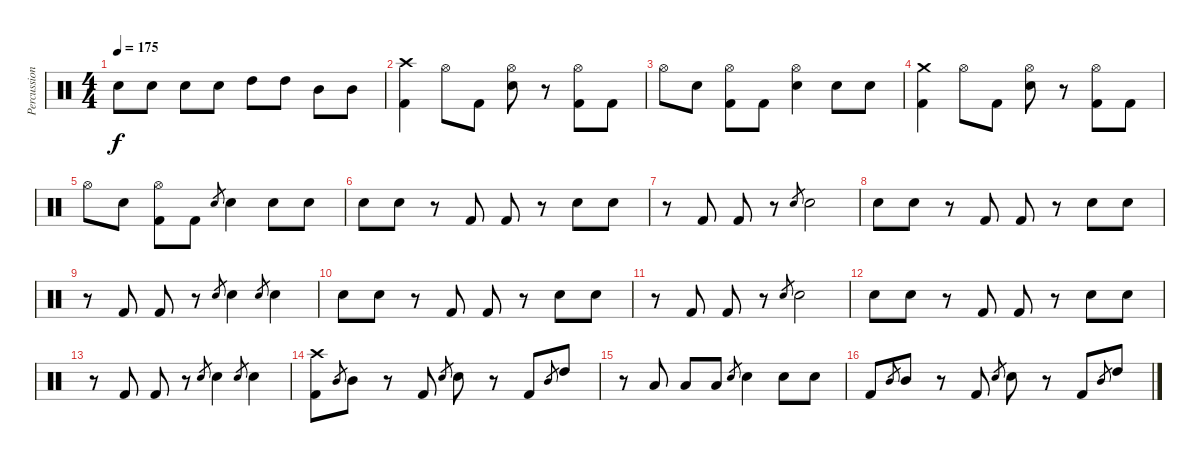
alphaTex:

\track ("Percussion" "Percussion") {instrument percussion}
\staff {score}
\articulation defaults
\ts (4 4)
\tempo 175
\clef neutral
\ks c "Electric Snare (hit)".8{dy f} "Electric Snare (hit)".8 "Electric Snare (hit)".8 "Electric Snare (hit)".8 "High Tom (hit)".8 "High Tom (hit)".8 "Mid Tom (hit)".8 "Mid Tom (hit)".8
|
("Crash high (hit)" "Kick (hit) 2").4 "Hi-Hat (open)".8 "Kick (hit) 2".8 ("Hi-Hat (open)" "Electric Snare (hit)").8 r.8 ("Hi-Hat (open)" "Kick (hit) 2").8 "Kick (hit) 2".8 |
"Hi-Hat (open)".8 "Electric Snare (hit)".8 ("Hi-Hat (open)" "Kick (hit) 2").8 "Kick (hit) 2".8 ("Hi-Hat (open)" "Electric Snare (hit)").4 "Electric Snare (hit)".8 "Electric Snare (hit)".8 |
("Crash medium (hit)" "Kick (hit) 2").4 "Hi-Hat (open)".8 "Kick (hit) 2".8 ("Hi-Hat (open)" "Electric Snare (hit)").8 r.8 ("Hi-Hat (open)" "Kick (hit) 2").8 "Kick (hit) 2".8 |
"Hi-Hat (open)".8 "Electric Snare (hit)".8 ("Hi-Hat (open)" "Kick (hit) 2").8 "Kick (hit) 2".8 "Electric Snare (hit)".8{gr} "Electric Snare (hit)".4 "Electric Snare (hit)".8 "Electric Snare (hit)".8 |
"Electric Snare (hit)".8 "Electric Snare (hit)".8 r.8 "Kick (hit) 2".8 "Kick (hit) 2".8 r.8 "Electric Snare (hit)".8 "Electric Snare (hit)".8 |
r.8 "Kick (hit) 2".8 "Kick (hit) 2".8 r.8 "Electric Snare (hit)".8{gr} "Electric Snare (hit)".2 |
"Electric Snare (hit)".8 "Electric Snare (hit)".8 r.8 "Kick (hit) 2".8 "Kick (hit) 2".8 r.8 "Electric Snare (hit)".8 "Electric Snare (hit)".8 |
r.8 "Kick (hit) 2".8 "Kick (hit) 2".8 r.8 "Electric Snare (hit)".8{gr} "Electric Snare (hit)".4 "Electric Snare (hit)".8{gr} "Electric Snare (hit)".4 |
"Electric Snare (hit)".8 "Electric Snare (hit)".8 r.8 "Kick (hit) 2".8 "Kick (hit) 2".8 r.8 "Electric Snare (hit)".8 "Electric Snare (hit)".8 |
r.8 "Kick (hit) 2".8 "Kick (hit) 2".8 r.8 "Electric Snare (hit)".8{gr} "Electric Snare (hit)".2 |
"Electric Snare (hit)".8 "Electric Snare (hit)".8 r.8 "Kick (hit) 2".8 "Kick (hit) 2".8 r.8 "Electric Snare (hit)".8 "Electric Snare (hit)".8 |
r.8 "Kick (hit) 2".8 "Kick (hit) 2".8 r.8 "Electric Snare (hit)".8{gr} "Electric Snare (hit)".4 "Electric Snare (hit)".8{gr} "Electric Snare (hit)".4 |
("Crash high (hit)" "Kick (hit) 2").8 "Mid Tom (hit)".8{gr} "Mid Tom (hit)".8 r.8 "Kick (hit) 2".8 "Electric Snare (hit)".8{gr} "Electric Snare (hit)".8 r.8 "Kick (hit) 2".8 "Mid Tom (hit)".8{gr} "High Tom (hit)".8 |
r.8 "Low Tom (hit)".8 "Low Tom (hit)".8 "Low Tom (hit)".8 "Electric Snare (hit)".8{gr} "Electric Snare (hit)".4 "Electric Snare (hit)".8 "Electric Snare (hit)".8 |
"Kick (hit) 2".8 "Mid Tom (hit)".8{gr} "Mid Tom (hit)".8 r.8 "Kick (hit) 2".8 "Electric Snare (hit)".8{gr} "Electric Snare (hit)".8 r.8 "Kick (hit) 2".8 "Mid Tom (hit)".8{gr} "High Tom (hit)".8
